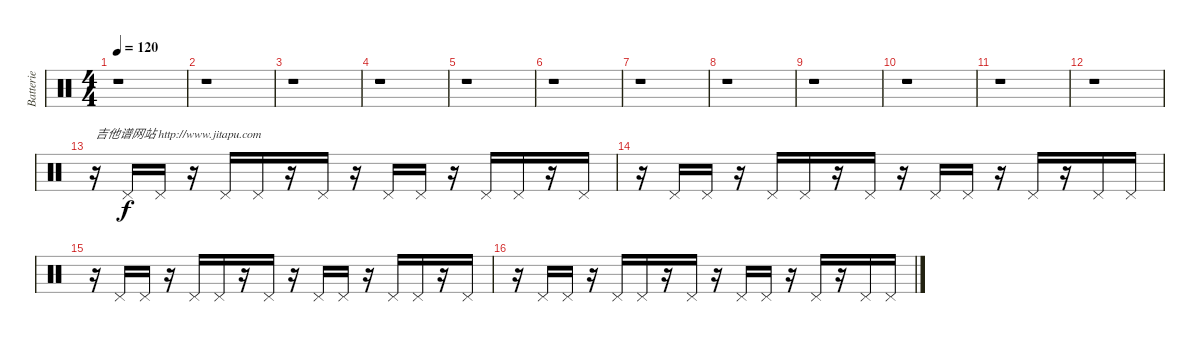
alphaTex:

\track ("Batterie" "Batterie") {instrument percussion}
\staff {score}
\articulation defaults
\ts (4 4)
\tempo 120
\clef neutral
\ks c
r.1{dy f} |
r.1 |
r.1 |
r.1 |
r.1 |
r.1 |
r.1 |
r.1 |
r.1 |
r.1 |
r.1 |
r.1 |
r.16{txt "吉他谱网站 http://www.jitapu.com"} "Pedal Hi-Hat (hit)".16 "Pedal Hi-Hat (hit)".16 r.16 "Pedal Hi-Hat (hit)".16 "Pedal Hi-Hat (hit)".16 r.16 "Pedal Hi-Hat (hit)".16 r.16 "Pedal Hi-Hat (hit)".16 "Pedal Hi-Hat (hit)".16 r.16 "Pedal Hi-Hat (hit)".16 "Pedal Hi-Hat (hit)".16 r.16 "Pedal Hi-Hat (hit)".16 |
r.16 "Pedal Hi-Hat (hit)".16 "Pedal Hi-Hat (hit)".16 r.16 "Pedal Hi-Hat (hit)".16 "Pedal Hi-Hat (hit)".16 r.16 "Pedal Hi-Hat (hit)".16 r.16 "Pedal Hi-Hat (hit)".16 "Pedal Hi-Hat (hit)".16 r.16 "Pedal Hi-Hat (hit)".16 r.16 "Pedal Hi-Hat (hit)".16 "Pedal Hi-Hat (hit)".16 |
r.16 "Pedal Hi-Hat (hit)".16 "Pedal Hi-Hat (hit)".16 r.16 "Pedal Hi-Hat (hit)".16 "Pedal Hi-Hat (hit)".16 r.16 "Pedal Hi-Hat (hit)".16 r.16 "Pedal Hi-Hat (hit)".16 "Pedal Hi-Hat (hit)".16 r.16 "Pedal Hi-Hat (hit)".16 "Pedal Hi-Hat (hit)".16 r.16 "Pedal Hi-Hat (hit)".16 |
r.16 "Pedal Hi-Hat (hit)".16 "Pedal Hi-Hat (hit)".16 r.16 "Pedal Hi-Hat (hit)".16 "Pedal Hi-Hat (hit)".16 r.16 "Pedal Hi-Hat (hit)".16 r.16 "Pedal Hi-Hat (hit)".16 "Pedal Hi-Hat (hit)".16 r.16 "Pedal Hi-Hat (hit)".16 r.16 "Pedal Hi-Hat (hit)".16 "Pedal Hi-Hat (hit)".16
